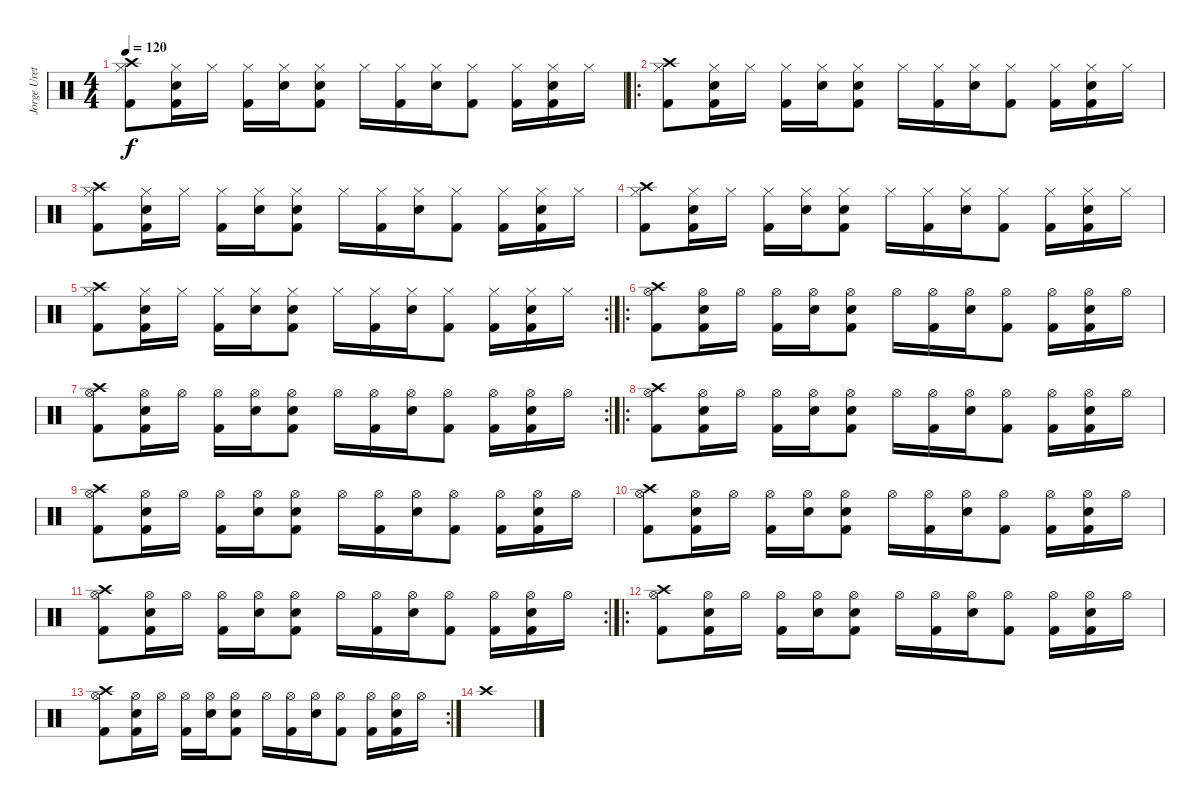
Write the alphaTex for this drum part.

\track ("Jorge Ureta" "Jorge Uret") {instrument percussion}
\staff {score}
\articulation defaults
\ts (4 4)
\tempo 120
\clef neutral
\ks c
("Crash high (hit)" "Hi-Hat (closed)" "Kick (hit) 2").8{dy f} ("Hi-Hat (closed)" "Electric Snare (hit)" "Kick (hit) 2").16 "Hi-Hat (closed)".16 ("Hi-Hat (closed)" "Kick (hit) 2").16 ("Hi-Hat (closed)" "Electric Snare (hit)").16 ("Hi-Hat (closed)" "Electric Snare (hit)" "Kick (hit) 2").8 "Hi-Hat (closed)".16 ("Hi-Hat (closed)" "Kick (hit) 2").16 ("Hi-Hat (closed)" "Electric Snare (hit)").16 ("Hi-Hat (closed)" "Kick (hit) 2").8 ("Hi-Hat (closed)" "Kick (hit) 2").16 ("Hi-Hat (closed)" "Electric Snare (hit)" "Kick (hit) 2").16 "Hi-Hat (closed)".16 |
\ro
("Crash high (hit)" "Hi-Hat (closed)" "Kick (hit) 2").8 ("Hi-Hat (closed)" "Electric Snare (hit)" "Kick (hit) 2").16 "Hi-Hat (closed)".16 ("Hi-Hat (closed)" "Kick (hit) 2").16 ("Hi-Hat (closed)" "Electric Snare (hit)").16 ("Hi-Hat (closed)" "Electric Snare (hit)" "Kick (hit) 2").8 "Hi-Hat (closed)".16 ("Hi-Hat (closed)" "Kick (hit) 2").16 ("Hi-Hat (closed)" "Electric Snare (hit)").16 ("Hi-Hat (closed)" "Kick (hit) 2").8 ("Hi-Hat (closed)" "Kick (hit) 2").16 ("Hi-Hat (closed)" "Electric Snare (hit)" "Kick (hit) 2").16 "Hi-Hat (closed)".16 |
("Crash high (hit)" "Hi-Hat (closed)" "Kick (hit) 2").8 ("Hi-Hat (closed)" "Electric Snare (hit)" "Kick (hit) 2").16 "Hi-Hat (closed)".16 ("Hi-Hat (closed)" "Kick (hit) 2").16 ("Hi-Hat (closed)" "Electric Snare (hit)").16 ("Hi-Hat (closed)" "Electric Snare (hit)" "Kick (hit) 2").8 "Hi-Hat (closed)".16 ("Hi-Hat (closed)" "Kick (hit) 2").16 ("Hi-Hat (closed)" "Electric Snare (hit)").16 ("Hi-Hat (closed)" "Kick (hit) 2").8 ("Hi-Hat (closed)" "Kick (hit) 2").16 ("Hi-Hat (closed)" "Electric Snare (hit)" "Kick (hit) 2").16 "Hi-Hat (closed)".16 |
("Crash high (hit)" "Hi-Hat (closed)" "Kick (hit) 2").8 ("Hi-Hat (closed)" "Electric Snare (hit)" "Kick (hit) 2").16 "Hi-Hat (closed)".16 ("Hi-Hat (closed)" "Kick (hit) 2").16 ("Hi-Hat (closed)" "Electric Snare (hit)").16 ("Hi-Hat (closed)" "Electric Snare (hit)" "Kick (hit) 2").8 "Hi-Hat (closed)".16 ("Hi-Hat (closed)" "Kick (hit) 2").16 ("Hi-Hat (closed)" "Electric Snare (hit)").16 ("Hi-Hat (closed)" "Kick (hit) 2").8 ("Hi-Hat (closed)" "Kick (hit) 2").16 ("Hi-Hat (closed)" "Electric Snare (hit)" "Kick (hit) 2").16 "Hi-Hat (closed)".16 |
\rc 2
("Crash high (hit)" "Hi-Hat (closed)" "Kick (hit) 2").8 ("Hi-Hat (closed)" "Electric Snare (hit)" "Kick (hit) 2").16 "Hi-Hat (closed)".16 ("Hi-Hat (closed)" "Kick (hit) 2").16 ("Hi-Hat (closed)" "Electric Snare (hit)").16 ("Hi-Hat (closed)" "Electric Snare (hit)" "Kick (hit) 2").8 "Hi-Hat (closed)".16 ("Hi-Hat (closed)" "Kick (hit) 2").16 ("Hi-Hat (closed)" "Electric Snare (hit)").16 ("Hi-Hat (closed)" "Kick (hit) 2").8 ("Hi-Hat (closed)" "Kick (hit) 2").16 ("Hi-Hat (closed)" "Electric Snare (hit)" "Kick (hit) 2").16 "Hi-Hat (closed)".16 |
\ro
("Crash high (hit)" "Hi-Hat (open)" "Kick (hit) 2").8 ("Hi-Hat (open)" "Electric Snare (hit)" "Kick (hit) 2").16 "Hi-Hat (open)".16 ("Hi-Hat (open)" "Kick (hit) 2").16 ("Hi-Hat (open)" "Electric Snare (hit)").16 ("Hi-Hat (open)" "Electric Snare (hit)" "Kick (hit) 2").8 "Hi-Hat (open)".16 ("Hi-Hat (open)" "Kick (hit) 2").16 ("Hi-Hat (open)" "Electric Snare (hit)").16 ("Hi-Hat (open)" "Kick (hit) 2").8 ("Hi-Hat (open)" "Kick (hit) 2").16 ("Hi-Hat (open)" "Electric Snare (hit)" "Kick (hit) 2").16 "Hi-Hat (open)".16 |
\rc 2
("Crash high (hit)" "Hi-Hat (open)" "Kick (hit) 2").8 ("Hi-Hat (open)" "Electric Snare (hit)" "Kick (hit) 2").16 "Hi-Hat (open)".16 ("Hi-Hat (open)" "Kick (hit) 2").16 ("Hi-Hat (open)" "Electric Snare (hit)").16 ("Hi-Hat (open)" "Electric Snare (hit)" "Kick (hit) 2").8 "Hi-Hat (open)".16 ("Hi-Hat (open)" "Kick (hit) 2").16 ("Hi-Hat (open)" "Electric Snare (hit)").16 ("Hi-Hat (open)" "Kick (hit) 2").8 ("Hi-Hat (open)" "Kick (hit) 2").16 ("Hi-Hat (open)" "Electric Snare (hit)" "Kick (hit) 2").16 "Hi-Hat (open)".16 |
\ro
("Crash high (hit)" "Hi-Hat (open)" "Kick (hit) 2").8 ("Hi-Hat (open)" "Electric Snare (hit)" "Kick (hit) 2").16 "Hi-Hat (open)".16 ("Hi-Hat (open)" "Kick (hit) 2").16 ("Hi-Hat (open)" "Electric Snare (hit)").16 ("Hi-Hat (open)" "Electric Snare (hit)" "Kick (hit) 2").8 "Hi-Hat (open)".16 ("Hi-Hat (open)" "Kick (hit) 2").16 ("Hi-Hat (open)" "Electric Snare (hit)").16 ("Hi-Hat (open)" "Kick (hit) 2").8 ("Hi-Hat (open)" "Kick (hit) 2").16 ("Hi-Hat (open)" "Electric Snare (hit)" "Kick (hit) 2").16 "Hi-Hat (open)".16 |
("Crash high (hit)" "Hi-Hat (open)" "Kick (hit) 2").8 ("Hi-Hat (open)" "Electric Snare (hit)" "Kick (hit) 2").16 "Hi-Hat (open)".16 ("Hi-Hat (open)" "Kick (hit) 2").16 ("Hi-Hat (open)" "Electric Snare (hit)").16 ("Hi-Hat (open)" "Electric Snare (hit)" "Kick (hit) 2").8 "Hi-Hat (open)".16 ("Hi-Hat (open)" "Kick (hit) 2").16 ("Hi-Hat (open)" "Electric Snare (hit)").16 ("Hi-Hat (open)" "Kick (hit) 2").8 ("Hi-Hat (open)" "Kick (hit) 2").16 ("Hi-Hat (open)" "Electric Snare (hit)" "Kick (hit) 2").16 "Hi-Hat (open)".16 |
("Crash high (hit)" "Hi-Hat (open)" "Kick (hit) 2").8 ("Hi-Hat (open)" "Electric Snare (hit)" "Kick (hit) 2").16 "Hi-Hat (open)".16 ("Hi-Hat (open)" "Kick (hit) 2").16 ("Hi-Hat (open)" "Electric Snare (hit)").16 ("Hi-Hat (open)" "Electric Snare (hit)" "Kick (hit) 2").8 "Hi-Hat (open)".16 ("Hi-Hat (open)" "Kick (hit) 2").16 ("Hi-Hat (open)" "Electric Snare (hit)").16 ("Hi-Hat (open)" "Kick (hit) 2").8 ("Hi-Hat (open)" "Kick (hit) 2").16 ("Hi-Hat (open)" "Electric Snare (hit)" "Kick (hit) 2").16 "Hi-Hat (open)".16 |
\rc 2
("Crash high (hit)" "Hi-Hat (open)" "Kick (hit) 2").8 ("Hi-Hat (open)" "Electric Snare (hit)" "Kick (hit) 2").16 "Hi-Hat (open)".16 ("Hi-Hat (open)" "Kick (hit) 2").16 ("Hi-Hat (open)" "Electric Snare (hit)").16 ("Hi-Hat (open)" "Electric Snare (hit)" "Kick (hit) 2").8 "Hi-Hat (open)".16 ("Hi-Hat (open)" "Kick (hit) 2").16 ("Hi-Hat (open)" "Electric Snare (hit)").16 ("Hi-Hat (open)" "Kick (hit) 2").8 ("Hi-Hat (open)" "Kick (hit) 2").16 ("Hi-Hat (open)" "Electric Snare (hit)" "Kick (hit) 2").16 "Hi-Hat (open)".16 |
\ro
("Crash high (hit)" "Hi-Hat (open)" "Kick (hit) 2").8 ("Hi-Hat (open)" "Electric Snare (hit)" "Kick (hit) 2").16 "Hi-Hat (open)".16 ("Hi-Hat (open)" "Kick (hit) 2").16 ("Hi-Hat (open)" "Electric Snare (hit)").16 ("Hi-Hat (open)" "Electric Snare (hit)" "Kick (hit) 2").8 "Hi-Hat (open)".16 ("Hi-Hat (open)" "Kick (hit) 2").16 ("Hi-Hat (open)" "Electric Snare (hit)").16 ("Hi-Hat (open)" "Kick (hit) 2").8 ("Hi-Hat (open)" "Kick (hit) 2").16 ("Hi-Hat (open)" "Electric Snare (hit)" "Kick (hit) 2").16 "Hi-Hat (open)".16 |
\rc 2
("Crash high (hit)" "Hi-Hat (open)" "Kick (hit) 2").8 ("Hi-Hat (open)" "Electric Snare (hit)" "Kick (hit) 2").16 "Hi-Hat (open)".16 ("Hi-Hat (open)" "Kick (hit) 2").16 ("Hi-Hat (open)" "Electric Snare (hit)").16 ("Hi-Hat (open)" "Electric Snare (hit)" "Kick (hit) 2").8 "Hi-Hat (open)".16 ("Hi-Hat (open)" "Kick (hit) 2").16 ("Hi-Hat (open)" "Electric Snare (hit)").16 ("Hi-Hat (open)" "Kick (hit) 2").8 ("Hi-Hat (open)" "Kick (hit) 2").16 ("Hi-Hat (open)" "Electric Snare (hit)" "Kick (hit) 2").16 "Hi-Hat (open)".16 |
"Crash high (hit)".1
